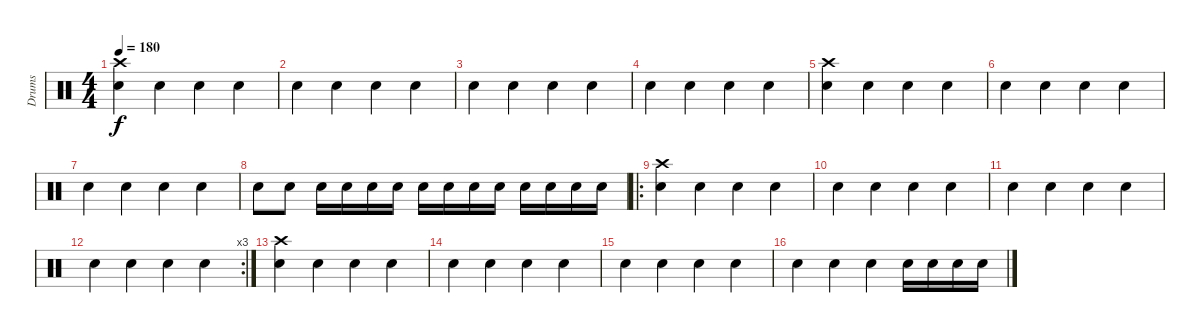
\track ("Drums" "Drums") {instrument percussion}
\staff {score}
\articulation defaults
\ts (4 4)
\tempo 180
\clef neutral
\ks c
("Crash high (hit)" "Snare (hit) 2").4{dy f} "Snare (hit) 2".4 "Snare (hit) 2".4 "Snare (hit) 2".4 |
"Snare (hit) 2".4 "Snare (hit) 2".4 "Snare (hit) 2".4 "Snare (hit) 2".4 |
"Snare (hit) 2".4 "Snare (hit) 2".4 "Snare (hit) 2".4 "Snare (hit) 2".4 |
"Snare (hit) 2".4 "Snare (hit) 2".4 "Snare (hit) 2".4 "Snare (hit) 2".4 |
("Crash high (hit)" "Snare (hit) 2").4 "Snare (hit) 2".4 "Snare (hit) 2".4 "Snare (hit) 2".4 |
"Snare (hit) 2".4 "Snare (hit) 2".4 "Snare (hit) 2".4 "Snare (hit) 2".4 |
"Snare (hit) 2".4 "Snare (hit) 2".4 "Snare (hit) 2".4 "Snare (hit) 2".4 |
"Snare (hit) 2".8 "Snare (hit) 2".8 "Snare (hit) 2".16 "Snare (hit) 2".16 "Snare (hit) 2".16 "Snare (hit) 2".16 "Snare (hit) 2".16 "Snare (hit) 2".16 "Snare (hit) 2".16 "Snare (hit) 2".16 "Snare (hit) 2".16 "Snare (hit) 2".16 "Snare (hit) 2".16 "Snare (hit) 2".16 |
\ro
("Crash high (hit)" "Snare (hit) 2").4 "Snare (hit) 2".4 "Snare (hit) 2".4 "Snare (hit) 2".4 |
"Snare (hit) 2".4 "Snare (hit) 2".4 "Snare (hit) 2".4 "Snare (hit) 2".4 |
"Snare (hit) 2".4 "Snare (hit) 2".4 "Snare (hit) 2".4 "Snare (hit) 2".4 |
\rc 3 "Snare (hit) 2".4 "Snare (hit) 2".4 "Snare (hit) 2".4 "Snare (hit) 2".4
|
("Crash high (hit)" "Snare (hit) 2").4 "Snare (hit) 2".4 "Snare (hit) 2".4 "Snare (hit) 2".4 |
"Snare (hit) 2".4 "Snare (hit) 2".4 "Snare (hit) 2".4 "Snare (hit) 2".4 |
"Snare (hit) 2".4 "Snare (hit) 2".4 "Snare (hit) 2".4 "Snare (hit) 2".4 |
"Snare (hit) 2".4 "Snare (hit) 2".4 "Snare (hit) 2".4 "Snare (hit) 2".16 "Snare (hit) 2".16 "Snare (hit) 2".16 "Snare (hit) 2".16
